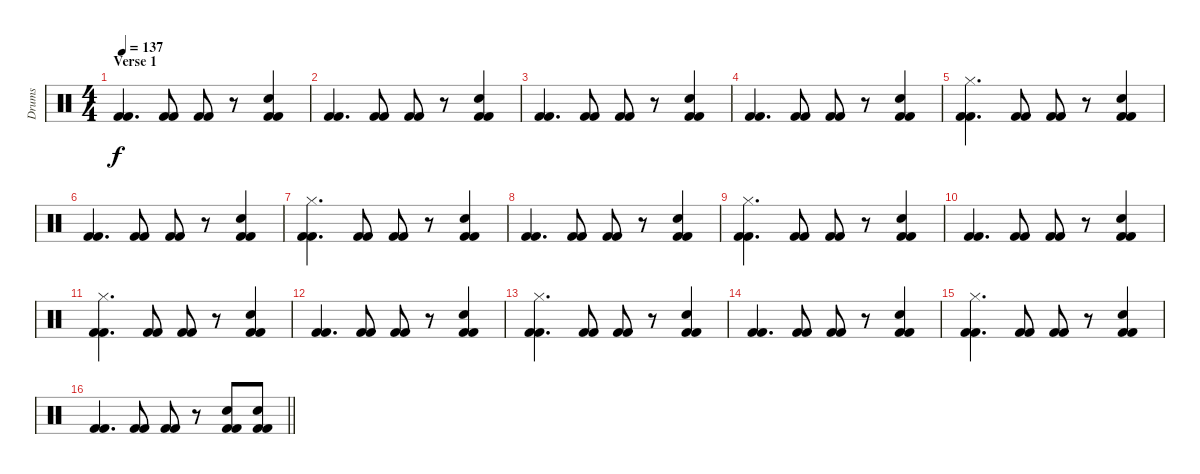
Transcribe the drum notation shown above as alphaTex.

\track ("Drums" "Drums") {instrument percussion}
\staff {score}
\articulation defaults
\ts (4 4)
\section ("" "Verse 1")
\tempo 137
\clef neutral
\ks c
("Kick (hit) 2" "Kick (hit) 2").4{d dy f} ("Kick (hit) 2" "Kick (hit) 2").8 ("Kick (hit) 2" "Kick (hit) 2").8 r.8 ("Kick (hit) 2" "Kick (hit) 2" "Electric Snare (hit)").4 |
("Kick (hit) 2" "Kick (hit) 2").4{d} ("Kick (hit) 2" "Kick (hit) 2").8 ("Kick (hit) 2" "Kick (hit) 2").8 r.8 ("Kick (hit) 2" "Kick (hit) 2" "Electric Snare (hit)").4 |
("Kick (hit) 2" "Kick (hit) 2").4{d} ("Kick (hit) 2" "Kick (hit) 2").8 ("Kick (hit) 2" "Kick (hit) 2").8 r.8 ("Kick (hit) 2" "Kick (hit) 2" "Electric Snare (hit)").4 |
("Kick (hit) 2" "Kick (hit) 2").4{d} ("Kick (hit) 2" "Kick (hit) 2").8 ("Kick (hit) 2" "Kick (hit) 2").8 r.8 ("Kick (hit) 2" "Kick (hit) 2" "Electric Snare (hit)").4 |
("Kick (hit) 2" "Kick (hit) 2" "Hi-Hat (closed)").4{d} ("Kick (hit) 2" "Kick (hit) 2").8 ("Kick (hit) 2" "Kick (hit) 2").8 r.8 ("Kick (hit) 2" "Kick (hit) 2" "Electric Snare (hit)").4 |
("Kick (hit) 2" "Kick (hit) 2").4{d} ("Kick (hit) 2" "Kick (hit) 2").8 ("Kick (hit) 2" "Kick (hit) 2").8 r.8 ("Kick (hit) 2" "Kick (hit) 2" "Electric Snare (hit)").4 |
("Kick (hit) 2" "Kick (hit) 2" "Hi-Hat (closed)").4{d} ("Kick (hit) 2" "Kick (hit) 2").8 ("Kick (hit) 2" "Kick (hit) 2").8 r.8 ("Kick (hit) 2" "Kick (hit) 2" "Electric Snare (hit)").4 |
("Kick (hit) 2" "Kick (hit) 2").4{d} ("Kick (hit) 2" "Kick (hit) 2").8 ("Kick (hit) 2" "Kick (hit) 2").8 r.8 ("Kick (hit) 2" "Kick (hit) 2" "Electric Snare (hit)").4 |
("Kick (hit) 2" "Kick (hit) 2" "Hi-Hat (closed)").4{d} ("Kick (hit) 2" "Kick (hit) 2").8 ("Kick (hit) 2" "Kick (hit) 2").8 r.8 ("Kick (hit) 2" "Kick (hit) 2" "Electric Snare (hit)").4 |
("Kick (hit) 2" "Kick (hit) 2").4{d} ("Kick (hit) 2" "Kick (hit) 2").8 ("Kick (hit) 2" "Kick (hit) 2").8 r.8 ("Kick (hit) 2" "Kick (hit) 2" "Electric Snare (hit)").4 |
("Kick (hit) 2" "Kick (hit) 2" "Hi-Hat (closed)").4{d} ("Kick (hit) 2" "Kick (hit) 2").8 ("Kick (hit) 2" "Kick (hit) 2").8 r.8 ("Kick (hit) 2" "Kick (hit) 2" "Electric Snare (hit)").4 |
("Kick (hit) 2" "Kick (hit) 2").4{d} ("Kick (hit) 2" "Kick (hit) 2").8 ("Kick (hit) 2" "Kick (hit) 2").8 r.8 ("Kick (hit) 2" "Kick (hit) 2" "Electric Snare (hit)").4 |
("Kick (hit) 2" "Kick (hit) 2" "Hi-Hat (closed)").4{d} ("Kick (hit) 2" "Kick (hit) 2").8 ("Kick (hit) 2" "Kick (hit) 2").8 r.8 ("Kick (hit) 2" "Kick (hit) 2" "Electric Snare (hit)").4 |
("Kick (hit) 2" "Kick (hit) 2").4{d} ("Kick (hit) 2" "Kick (hit) 2").8 ("Kick (hit) 2" "Kick (hit) 2").8 r.8 ("Kick (hit) 2" "Kick (hit) 2" "Electric Snare (hit)").4 |
("Kick (hit) 2" "Kick (hit) 2" "Hi-Hat (closed)").4{d} ("Kick (hit) 2" "Kick (hit) 2").8 ("Kick (hit) 2" "Kick (hit) 2").8 r.8 ("Kick (hit) 2" "Kick (hit) 2" "Electric Snare (hit)").4 |
\barLineRight lightlight
("Kick (hit) 2" "Kick (hit) 2").4{d} ("Kick (hit) 2" "Kick (hit) 2").8 ("Kick (hit) 2" "Kick (hit) 2").8 r.8 ("Kick (hit) 2" "Kick (hit) 2" "Electric Snare (hit)").8 ("Kick (hit) 2" "Kick (hit) 2" "Electric Snare (hit)").8
